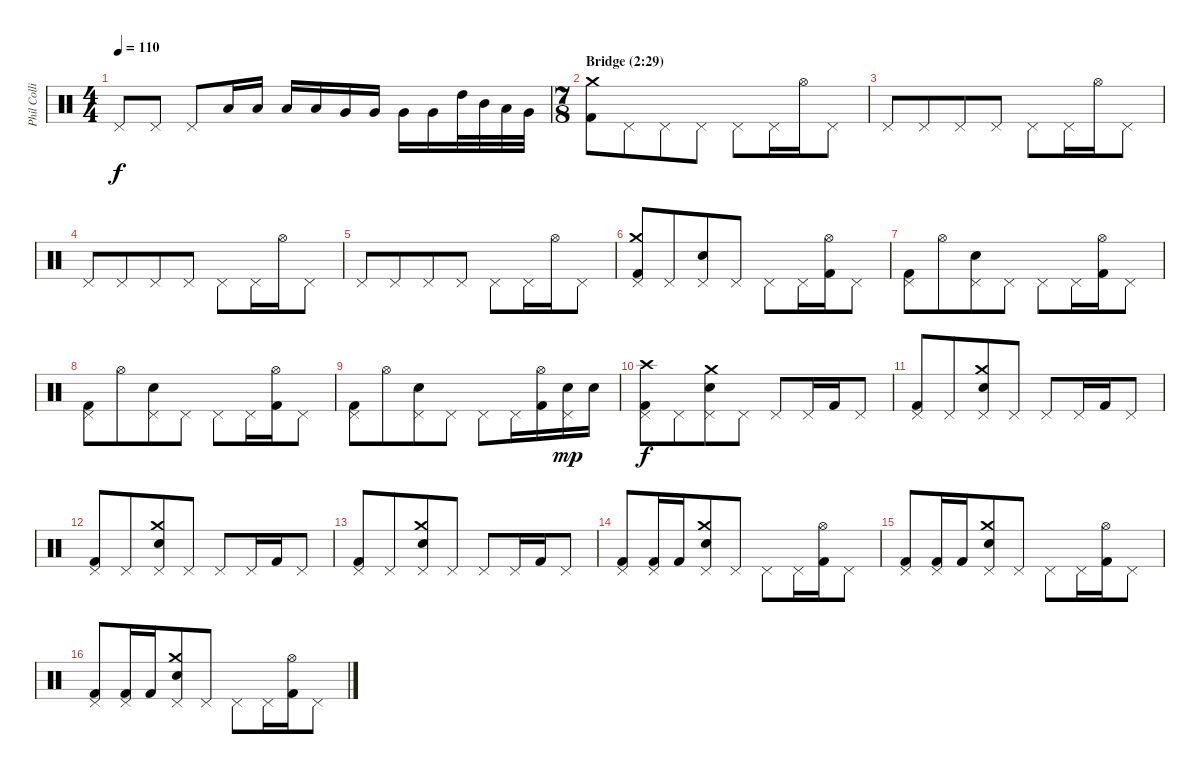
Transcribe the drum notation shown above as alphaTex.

\track ("Phil Collins (drums)" "Phil Colli") {instrument percussion}
\staff {score}
\articulation defaults
\ts (4 4)
\tempo 110
\clef neutral
\ks c "Pedal Hi-Hat (hit)".8{dy f} "Pedal Hi-Hat (hit)".8 "Pedal Hi-Hat (hit)".8 "Low Tom (hit)".16 "Low Tom (hit)".16 "Low Tom (hit)".16 "Low Tom (hit)".16 "Very Low Tom (hit)".16 "Very Low Tom (hit)".16 "Very Low Tom (hit)".16 "Very Low Tom (hit)".16 "High Tom (hit)".32 "Mid Tom (hit)".32 "Low Tom (hit)".32 "Very Low Tom (hit)".32
|
\ts (7 8)
\section ("" "Bridge (2:29)")
("Crash medium (hit)" "Kick (hit) 2").8 "Pedal Hi-Hat (hit)".8 "Pedal Hi-Hat (hit)".8 "Pedal Hi-Hat (hit)".8 "Pedal Hi-Hat (hit)".8 "Pedal Hi-Hat (hit)".16 "Hi-Hat (open)".16 "Pedal Hi-Hat (hit)".8 |
"Pedal Hi-Hat (hit)".8 "Pedal Hi-Hat (hit)".8 "Pedal Hi-Hat (hit)".8 "Pedal Hi-Hat (hit)".8 "Pedal Hi-Hat (hit)".8 "Pedal Hi-Hat (hit)".16 "Hi-Hat (open)".16 "Pedal Hi-Hat (hit)".8 |
"Pedal Hi-Hat (hit)".8 "Pedal Hi-Hat (hit)".8 "Pedal Hi-Hat (hit)".8 "Pedal Hi-Hat (hit)".8 "Pedal Hi-Hat (hit)".8 "Pedal Hi-Hat (hit)".16 "Hi-Hat (open)".16 "Pedal Hi-Hat (hit)".8 |
"Pedal Hi-Hat (hit)".8 "Pedal Hi-Hat (hit)".8 "Pedal Hi-Hat (hit)".8 "Pedal Hi-Hat (hit)".8 "Pedal Hi-Hat (hit)".8 "Pedal Hi-Hat (hit)".16 "Hi-Hat (open)".16 "Pedal Hi-Hat (hit)".8 |
("Crash medium (hit)" "Pedal Hi-Hat (hit)" "Kick (hit) 2").8 "Pedal Hi-Hat (hit)".8 ("Pedal Hi-Hat (hit)" "Electric Snare (hit)").8 "Pedal Hi-Hat (hit)".8 "Pedal Hi-Hat (hit)".8 "Pedal Hi-Hat (hit)".16 ("Hi-Hat (open)" "Kick (hit) 2").16 "Pedal Hi-Hat (hit)".8 |
("Pedal Hi-Hat (hit)" "Kick (hit) 2").8 "Hi-Hat (open)".8 ("Pedal Hi-Hat (hit)" "Electric Snare (hit)").8 "Pedal Hi-Hat (hit)".8 "Pedal Hi-Hat (hit)".8 "Pedal Hi-Hat (hit)".16 ("Hi-Hat (open)" "Kick (hit) 2").16 "Pedal Hi-Hat (hit)".8 |
("Pedal Hi-Hat (hit)" "Kick (hit) 2").8 "Hi-Hat (open)".8 ("Pedal Hi-Hat (hit)" "Electric Snare (hit)").8 "Pedal Hi-Hat (hit)".8 "Pedal Hi-Hat (hit)".8 "Pedal Hi-Hat (hit)".16 ("Hi-Hat (open)" "Kick (hit) 2").16 "Pedal Hi-Hat (hit)".8 |
("Pedal Hi-Hat (hit)" "Kick (hit) 2").8 "Hi-Hat (open)".8 ("Pedal Hi-Hat (hit)" "Electric Snare (hit)").8 "Pedal Hi-Hat (hit)".8 "Pedal Hi-Hat (hit)".8 "Pedal Hi-Hat (hit)".16 ("Hi-Hat (open)" "Kick (hit) 2").16 ("Pedal Hi-Hat (hit)" "Electric Snare (hit)").16{dy mp} "Electric Snare (hit)".16 |
("Crash high (hit)" "Pedal Hi-Hat (hit)" "Kick (hit) 2").8{dy f} "Pedal Hi-Hat (hit)".8 ("Crash medium (hit)" "Pedal Hi-Hat (hit)" "Electric Snare (hit)").8 "Pedal Hi-Hat (hit)".8 "Pedal Hi-Hat (hit)".8 "Pedal Hi-Hat (hit)".16 "Kick (hit) 2".16 "Pedal Hi-Hat (hit)".8 |
("Pedal Hi-Hat (hit)" "Kick (hit) 2").8 "Pedal Hi-Hat (hit)".8 ("Crash medium (hit)" "Pedal Hi-Hat (hit)" "Electric Snare (hit)").8 "Pedal Hi-Hat (hit)".8 "Pedal Hi-Hat (hit)".8 "Pedal Hi-Hat (hit)".16 "Kick (hit) 2".16 "Pedal Hi-Hat (hit)".8 |
("Pedal Hi-Hat (hit)" "Kick (hit) 2").8 "Pedal Hi-Hat (hit)".8 ("Crash medium (hit)" "Pedal Hi-Hat (hit)" "Electric Snare (hit)").8 "Pedal Hi-Hat (hit)".8 "Pedal Hi-Hat (hit)".8 "Pedal Hi-Hat (hit)".16 "Kick (hit) 2".16 "Pedal Hi-Hat (hit)".8 |
("Pedal Hi-Hat (hit)" "Kick (hit) 2").8 "Pedal Hi-Hat (hit)".8 ("Crash medium (hit)" "Pedal Hi-Hat (hit)" "Electric Snare (hit)").8 "Pedal Hi-Hat (hit)".8 "Pedal Hi-Hat (hit)".8 "Pedal Hi-Hat (hit)".16 "Kick (hit) 2".16 "Pedal Hi-Hat (hit)".8 |
("Pedal Hi-Hat (hit)" "Kick (hit) 2").8 ("Pedal Hi-Hat (hit)" "Kick (hit) 2").16 "Kick (hit) 2".16 ("Crash medium (hit)" "Pedal Hi-Hat (hit)" "Electric Snare (hit)").8 "Pedal Hi-Hat (hit)".8 "Pedal Hi-Hat (hit)".8 "Pedal Hi-Hat (hit)".16 ("Hi-Hat (open)" "Kick (hit) 2").16 "Pedal Hi-Hat (hit)".8 |
("Pedal Hi-Hat (hit)" "Kick (hit) 2").8 ("Pedal Hi-Hat (hit)" "Kick (hit) 2").16 "Kick (hit) 2".16 ("Crash medium (hit)" "Pedal Hi-Hat (hit)" "Electric Snare (hit)").8 "Pedal Hi-Hat (hit)".8 "Pedal Hi-Hat (hit)".8 "Pedal Hi-Hat (hit)".16 ("Hi-Hat (open)" "Kick (hit) 2").16 "Pedal Hi-Hat (hit)".8 |
("Pedal Hi-Hat (hit)" "Kick (hit) 2").8 ("Pedal Hi-Hat (hit)" "Kick (hit) 2").16 "Kick (hit) 2".16 ("Crash medium (hit)" "Pedal Hi-Hat (hit)" "Electric Snare (hit)").8 "Pedal Hi-Hat (hit)".8 "Pedal Hi-Hat (hit)".8 "Pedal Hi-Hat (hit)".16 ("Hi-Hat (open)" "Kick (hit) 2").16 "Pedal Hi-Hat (hit)".8
